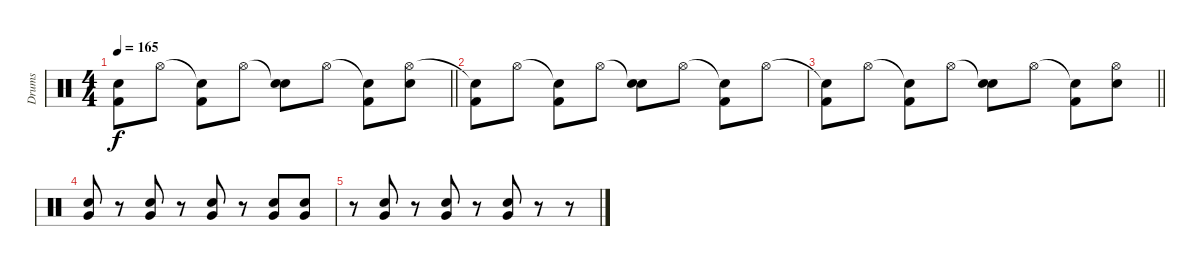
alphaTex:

\track ("Drums" "Drums") {instrument percussion}
\staff {score}
\articulation defaults
\ts (4 4)
\tempo 165
\clef neutral
\barLineRight lightlight
\ks c
("Snare (hit)"{t} "Kick (hit) 2").8{dy f} "Hi-Hat (open)".8 ("Snare (hit)"{t} "Kick (hit) 2").8 "Hi-Hat (open)".8 ("Snare (hit)"{t} "Electric Snare (hit)").8 "Hi-Hat (open)".8 ("Snare (hit)"{t} "Kick (hit) 2").8 ("Hi-Hat (open)" "Electric Snare (hit)").8 |
("Snare (hit)"{t} "Kick (hit) 2").8 "Hi-Hat (open)".8 ("Snare (hit)"{t} "Kick (hit) 2").8 "Hi-Hat (open)".8 ("Snare (hit)"{t} "Electric Snare (hit)").8 "Hi-Hat (open)".8 ("Snare (hit)"{t} "Kick (hit) 2").8 "Hi-Hat (open)".8 |
\barLineRight lightlight
("Snare (hit)"{t} "Kick (hit) 2").8 "Hi-Hat (open)".8 ("Snare (hit)"{t} "Kick (hit) 2").8 "Hi-Hat (open)".8 ("Snare (hit)"{t} "Electric Snare (hit)").8 "Hi-Hat (open)".8 ("Snare (hit)"{t} "Kick (hit) 2").8 ("Hi-Hat (open)" "Electric Snare (hit)").8 |
("Electric Snare (hit)" "Very Low Tom (hit)").8 r.8 ("Electric Snare (hit)" "Very Low Tom (hit)").8 r.8 ("Electric Snare (hit)" "Very Low Tom (hit)").8 r.8 ("Electric Snare (hit)" "Very Low Tom (hit)").8 ("Electric Snare (hit)" "Very Low Tom (hit)").8 |
r.8 ("Electric Snare (hit)" "Very Low Tom (hit)").8 r.8 ("Electric Snare (hit)" "Very Low Tom (hit)").8 r.8 ("Electric Snare (hit)" "Very Low Tom (hit)").8 r.8 r.8
